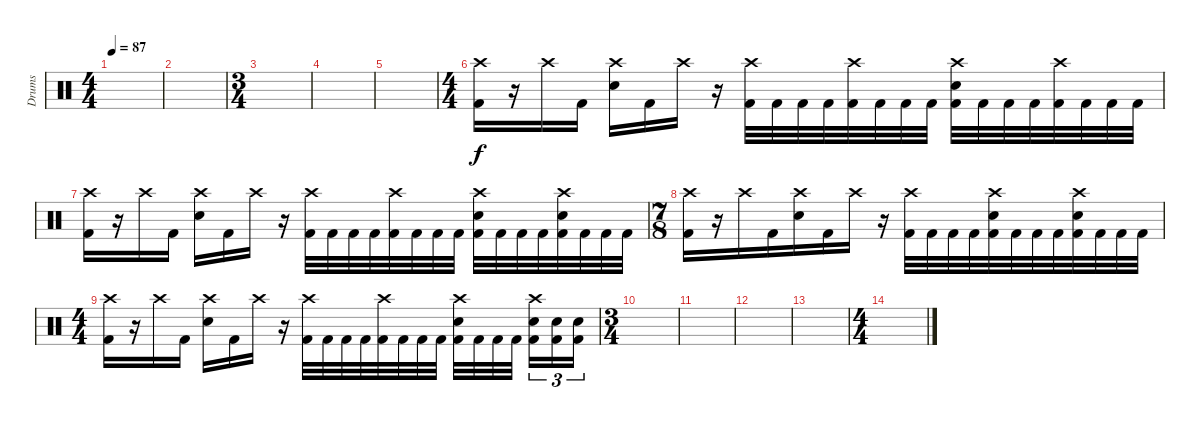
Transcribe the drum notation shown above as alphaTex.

\track ("Drums" "Drums") {instrument percussion}
\staff
\articulation defaults
\ts (4 4)
\tempo 87
\clef neutral
\ks c
|
|
\ts (3 4)
|
|
|
\ts (4 4)
("Crash high (hit)" "Kick (hit) 2").16 r.16 "Crash high (hit)".16 "Kick (hit) 2".16 ("Crash high (hit)" "Electric Snare (hit)").16 "Kick (hit) 2".16 "Crash high (hit)".16 r.16 ("Crash high (hit)" "Kick (hit) 2").32 "Kick (hit) 2".32 "Kick (hit) 2".32 "Kick (hit) 2".32 ("Crash high (hit)" "Kick (hit) 2").32 "Kick (hit) 2".32 "Kick (hit) 2".32 "Kick (hit) 2".32 ("Crash high (hit)" "Electric Snare (hit)" "Kick (hit) 2").32 "Kick (hit) 2".32 "Kick (hit) 2".32 "Kick (hit) 2".32 ("Crash high (hit)" "Kick (hit) 2").32 "Kick (hit) 2".32 "Kick (hit) 2".32 "Kick (hit) 2".32 |
("Crash high (hit)" "Kick (hit) 2").16 r.16 "Crash high (hit)".16 "Kick (hit) 2".16 ("Crash high (hit)" "Electric Snare (hit)").16 "Kick (hit) 2".16 "Crash high (hit)".16 r.16 ("Crash high (hit)" "Kick (hit) 2").32 "Kick (hit) 2".32 "Kick (hit) 2".32 "Kick (hit) 2".32 ("Crash high (hit)" "Kick (hit) 2").32 "Kick (hit) 2".32 "Kick (hit) 2".32 "Kick (hit) 2".32 ("Crash high (hit)" "Electric Snare (hit)" "Kick (hit) 2").32 "Kick (hit) 2".32 "Kick (hit) 2".32 "Kick (hit) 2".32 ("Crash high (hit)" "Electric Snare (hit)" "Kick (hit) 2").32 "Kick (hit) 2".32 "Kick (hit) 2".32 "Kick (hit) 2".32 |
\ts (7 8)
("Crash high (hit)" "Kick (hit) 2").16 r.16 "Crash high (hit)".16 "Kick (hit) 2".16 ("Crash high (hit)" "Electric Snare (hit)").16 "Kick (hit) 2".16 "Crash high (hit)".16 r.16 ("Crash high (hit)" "Kick (hit) 2").32 "Kick (hit) 2".32 "Kick (hit) 2".32 "Kick (hit) 2".32 ("Crash high (hit)" "Electric Snare (hit)" "Kick (hit) 2").32 "Kick (hit) 2".32 "Kick (hit) 2".32 "Kick (hit) 2".32 ("Crash high (hit)" "Electric Snare (hit)" "Kick (hit) 2").32 "Kick (hit) 2".32 "Kick (hit) 2".32 "Kick (hit) 2".32 |
\ts (4 4)
("Crash high (hit)" "Kick (hit) 2").16 r.16 "Crash high (hit)".16 "Kick (hit) 2".16 ("Crash high (hit)" "Electric Snare (hit)").16 "Kick (hit) 2".16 "Crash high (hit)".16 r.16 ("Crash high (hit)" "Kick (hit) 2").32 "Kick (hit) 2".32 "Kick (hit) 2".32 "Kick (hit) 2".32 ("Crash high (hit)" "Kick (hit) 2").32 "Kick (hit) 2".32 "Kick (hit) 2".32 "Kick (hit) 2".32 ("Crash high (hit)" "Electric Snare (hit)" "Kick (hit) 2").32 "Kick (hit) 2".32 "Kick (hit) 2".32 "Kick (hit) 2".32{beam splitsecondary} ("Crash high (hit)" "Electric Snare (hit)" "Kick (hit) 2").16{tu (3 2)} ("Electric Snare (hit)" "Kick (hit) 2").16{tu (3 2)} ("Electric Snare (hit)" "Kick (hit) 2").16{tu (3 2)} |
\ts (3 4)
|
|
|
|
\ts (4 4)
